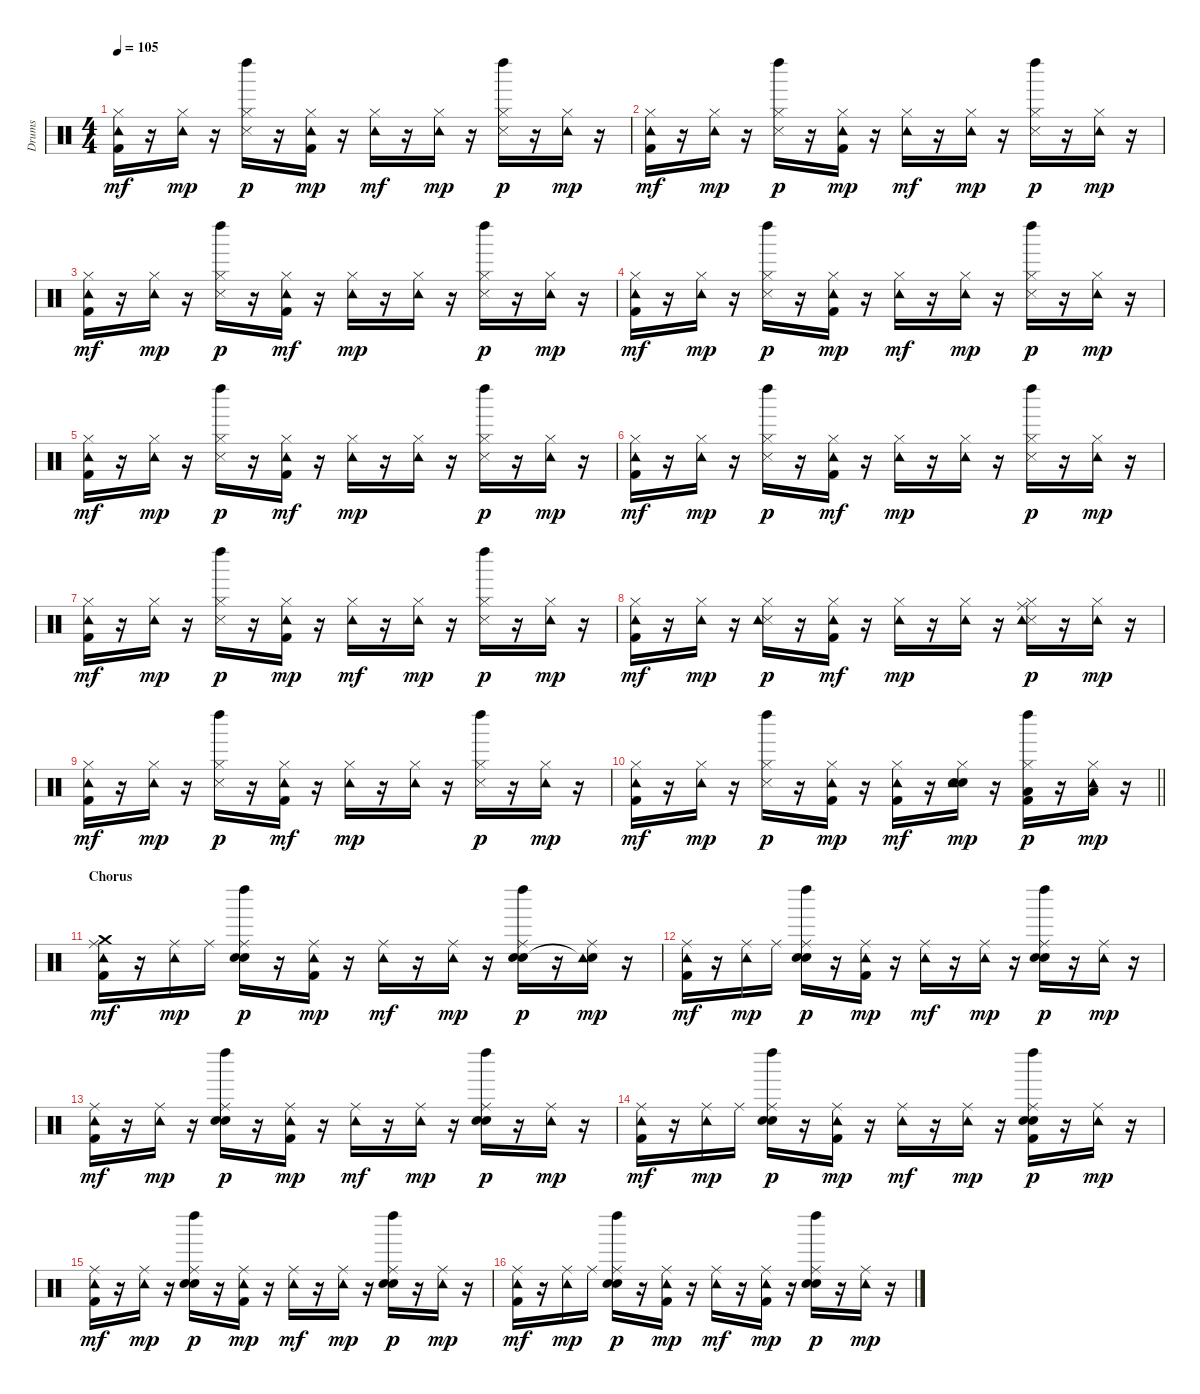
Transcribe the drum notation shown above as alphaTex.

\track ("Drums" "Drums") {instrument percussion}
\staff {score}
\articulation defaults
\ts (4 4)
\tempo 105
\clef neutral
\ks c
("Hi-Hat (closed)" "Tambourine (hit)" "Kick (hit) 2").16{dy mf} r.16 ("Hi-Hat (closed)" "Tambourine (hit)").16{dy mp} r.16 ("Hi-Hat (closed)" "Snare (side stick) 3" "Left Maraca (hit)").16{dy p} r.16 ("Hi-Hat (closed)" "Tambourine (hit)" "Kick (hit) 2").16{dy mp} r.16 ("Hi-Hat (closed)" "Tambourine (hit)").16{dy mf} r.16 ("Hi-Hat (closed)" "Tambourine (hit)").16{dy mp} r.16 ("Hi-Hat (closed)" "Snare (side stick) 3" "Left Maraca (hit)").16{dy p} r.16 ("Hi-Hat (closed)" "Tambourine (hit)").16{dy mp} r.16 |
("Hi-Hat (closed)" "Tambourine (hit)" "Kick (hit) 2").16{dy mf} r.16 ("Hi-Hat (closed)" "Tambourine (hit)").16{dy mp} r.16 ("Hi-Hat (closed)" "Snare (side stick) 3" "Left Maraca (hit)").16{dy p} r.16 ("Hi-Hat (closed)" "Tambourine (hit)" "Kick (hit) 2").16{dy mp} r.16 ("Hi-Hat (closed)" "Tambourine (hit)").16{dy mf} r.16 ("Hi-Hat (closed)" "Tambourine (hit)").16{dy mp} r.16 ("Hi-Hat (closed)" "Snare (side stick) 3" "Left Maraca (hit)").16{dy p} r.16 ("Hi-Hat (closed)" "Tambourine (hit)").16{dy mp} r.16 |
("Hi-Hat (closed)" "Tambourine (hit)" "Kick (hit) 2").16{dy mf} r.16 ("Hi-Hat (closed)" "Tambourine (hit)").16{dy mp} r.16 ("Hi-Hat (closed)" "Snare (side stick) 3" "Left Maraca (hit)").16{dy p} r.16 ("Hi-Hat (closed)" "Tambourine (hit)" "Kick (hit) 2").16{dy mf} r.16 ("Hi-Hat (closed)" "Tambourine (hit)").16{dy mp} r.16 ("Hi-Hat (closed)" "Tambourine (hit)").16 r.16 ("Hi-Hat (closed)" "Snare (side stick) 3" "Left Maraca (hit)").16{dy p} r.16 ("Hi-Hat (closed)" "Tambourine (hit)").16{dy mp} r.16 |
("Hi-Hat (closed)" "Tambourine (hit)" "Kick (hit) 2").16{dy mf} r.16 ("Hi-Hat (closed)" "Tambourine (hit)").16{dy mp} r.16 ("Hi-Hat (closed)" "Snare (side stick) 3" "Left Maraca (hit)").16{dy p} r.16 ("Hi-Hat (closed)" "Tambourine (hit)" "Kick (hit) 2").16{dy mp} r.16 ("Hi-Hat (closed)" "Tambourine (hit)").16{dy mf} r.16 ("Hi-Hat (closed)" "Tambourine (hit)").16{dy mp} r.16 ("Hi-Hat (closed)" "Snare (side stick) 3" "Left Maraca (hit)").16{dy p} r.16 ("Hi-Hat (closed)" "Tambourine (hit)").16{dy mp} r.16 |
("Hi-Hat (closed)" "Tambourine (hit)" "Kick (hit) 2").16{dy mf} r.16 ("Hi-Hat (closed)" "Tambourine (hit)").16{dy mp} r.16 ("Hi-Hat (closed)" "Snare (side stick) 3" "Left Maraca (hit)").16{dy p} r.16 ("Hi-Hat (closed)" "Tambourine (hit)" "Kick (hit) 2").16{dy mf} r.16 ("Hi-Hat (closed)" "Tambourine (hit)").16{dy mp} r.16 ("Hi-Hat (closed)" "Tambourine (hit)").16 r.16 ("Hi-Hat (closed)" "Snare (side stick) 3" "Left Maraca (hit)").16{dy p} r.16 ("Hi-Hat (closed)" "Tambourine (hit)").16{dy mp} r.16 |
("Hi-Hat (closed)" "Tambourine (hit)" "Kick (hit) 2").16{dy mf} r.16 ("Hi-Hat (closed)" "Tambourine (hit)").16{dy mp} r.16 ("Hi-Hat (closed)" "Snare (side stick) 3" "Left Maraca (hit)").16{dy p} r.16 ("Hi-Hat (closed)" "Tambourine (hit)" "Kick (hit) 2").16{dy mf} r.16 ("Hi-Hat (closed)" "Tambourine (hit)").16{dy mp} r.16 ("Hi-Hat (closed)" "Tambourine (hit)").16 r.16 ("Hi-Hat (closed)" "Snare (side stick) 3" "Left Maraca (hit)").16{dy p} r.16 ("Hi-Hat (closed)" "Tambourine (hit)").16{dy mp} r.16 |
("Hi-Hat (closed)" "Tambourine (hit)" "Kick (hit) 2").16{dy mf} r.16 ("Hi-Hat (closed)" "Tambourine (hit)").16{dy mp} r.16 ("Hi-Hat (closed)" "Snare (side stick) 3" "Left Maraca (hit)").16{dy p} r.16 ("Hi-Hat (closed)" "Tambourine (hit)" "Kick (hit) 2").16{dy mp} r.16 ("Hi-Hat (closed)" "Tambourine (hit)").16{dy mf} r.16 ("Hi-Hat (closed)" "Tambourine (hit)").16{dy mp} r.16 ("Hi-Hat (closed)" "Snare (side stick) 3" "Left Maraca (hit)").16{dy p} r.16 ("Hi-Hat (closed)" "Tambourine (hit)").16{dy mp} r.16 |
("Hi-Hat (closed)" "Tambourine (hit)" "Kick (hit) 2").16{dy mf} r.16 ("Hi-Hat (closed)" "Tambourine (hit)").16{dy mp} r.16 ("Hi-Hat (closed)" "Snare (side stick) 3" "Tambourine (hit)").16{dy p} r.16 ("Hi-Hat (closed)" "Tambourine (hit)" "Kick (hit) 2").16{dy mf} r.16 ("Hi-Hat (closed)" "Tambourine (hit)").16{dy mp} r.16 ("Hi-Hat (closed)" "Tambourine (hit)").16 r.16 ("Hi-Hat (closed)" "Snare (side stick) 3" "Ride (middle)" "Tambourine (hit)").16{dy p} r.16 ("Hi-Hat (closed)" "Tambourine (hit)").16{dy mp} r.16 |
("Hi-Hat (closed)" "Tambourine (hit)" "Kick (hit) 2").16{dy mf} r.16 ("Hi-Hat (closed)" "Tambourine (hit)").16{dy mp} r.16 ("Hi-Hat (closed)" "Snare (side stick) 3" "Left Maraca (hit)").16{dy p} r.16 ("Hi-Hat (closed)" "Tambourine (hit)" "Kick (hit) 2").16{dy mf} r.16 ("Hi-Hat (closed)" "Tambourine (hit)").16{dy mp} r.16 ("Hi-Hat (closed)" "Tambourine (hit)").16 r.16 ("Hi-Hat (closed)" "Snare (side stick) 3" "Left Maraca (hit)").16{dy p} r.16 ("Hi-Hat (closed)" "Tambourine (hit)").16{dy mp} r.16 |
\barLineRight lightlight
("Hi-Hat (closed)" "Tambourine (hit)" "Kick (hit) 2").16{dy mf} r.16 ("Hi-Hat (closed)" "Tambourine (hit)").16{dy mp} r.16 ("Hi-Hat (closed)" "Snare (side stick) 3" "Left Maraca (hit)").16{dy p} r.16 ("Hi-Hat (closed)" "Tambourine (hit)" "Kick (hit) 2").16{dy mp} r.16 ("Hi-Hat (closed)" "Tambourine (hit)" "Kick (hit) 2").16{dy mf} r.16 ("Hi-Hat (closed)" "Electric Snare (hit)" "Snare (hit) 2" "Tambourine (hit)").16{dy mp} r.16 ("Hi-Hat (closed)" "Low Tom (hit)" "Left Maraca (hit)" "Kick (hit) 2").16{dy p} r.16 ("Hi-Hat (closed)" "Low Tom (hit)" "Tambourine (hit)").16{dy mp} r.16 |
\section ("" "Chorus")
("Ride (middle)" "Crash medium (hit)" "Tambourine (hit)" "Kick (hit) 2").16{dy mf} r.16 ("Ride (middle)" "Tambourine (hit)").16{dy mp} "Ride (middle)".16 ("Ride (middle)" "Electric Snare (hit)" "Snare (hit) 2" "Left Maraca (hit)").16{dy p} r.16 ("Ride (middle)" "Tambourine (hit)" "Kick (hit) 2").16{dy mp} r.16 ("Ride (middle)" "Tambourine (hit)").16{dy mf} r.16 ("Ride (middle)" "Tambourine (hit)").16{dy mp} r.16 ("Ride (middle)" "Electric Snare (hit)" "Snare (hit) 2" "Left Maraca (hit)").16{dy p} r.16 ("Ride (middle)" "Snare (hit)"{t} "Tambourine (hit)").16{dy mp} r.16 |
("Ride (middle)" "Tambourine (hit)" "Kick (hit) 2").16{dy mf} r.16 ("Ride (middle)" "Tambourine (hit)").16{dy mp} "Ride (middle)".16 ("Ride (middle)" "Electric Snare (hit)" "Snare (hit) 2" "Left Maraca (hit)").16{dy p} r.16 ("Ride (middle)" "Tambourine (hit)" "Kick (hit) 2").16{dy mp} r.16 ("Ride (middle)" "Tambourine (hit)").16{dy mf} r.16 ("Ride (middle)" "Tambourine (hit)").16{dy mp} r.16 ("Ride (middle)" "Electric Snare (hit)" "Snare (hit) 2" "Left Maraca (hit)").16{dy p} r.16 ("Ride (middle)" "Tambourine (hit)").16{dy mp} r.16 |
("Ride (middle)" "Tambourine (hit)" "Kick (hit) 2").16{dy mf} r.16 ("Ride (middle)" "Tambourine (hit)").16{dy mp} r.16 ("Ride (middle)" "Electric Snare (hit)" "Snare (hit) 2" "Left Maraca (hit)").16{dy p} r.16 ("Ride (middle)" "Tambourine (hit)" "Kick (hit) 2").16{dy mp} r.16 ("Ride (middle)" "Tambourine (hit)").16{dy mf} r.16 ("Ride (middle)" "Tambourine (hit)").16{dy mp} r.16 ("Ride (middle)" "Electric Snare (hit)" "Snare (hit) 2" "Left Maraca (hit)").16{dy p} r.16 ("Ride (middle)" "Tambourine (hit)").16{dy mp} r.16 |
("Ride (middle)" "Tambourine (hit)" "Kick (hit) 2").16{dy mf} r.16 ("Ride (middle)" "Tambourine (hit)").16{dy mp} "Ride (middle)".16 ("Ride (middle)" "Electric Snare (hit)" "Snare (hit) 2" "Left Maraca (hit)").16{dy p} r.16 ("Ride (middle)" "Tambourine (hit)" "Kick (hit) 2").16{dy mp} r.16 ("Ride (middle)" "Tambourine (hit)").16{dy mf} r.16 ("Ride (middle)" "Tambourine (hit)").16{dy mp} r.16 ("Ride (middle)" "Electric Snare (hit)" "Snare (hit) 2" "Left Maraca (hit)" "Kick (hit) 2").16{dy p} r.16 ("Ride (middle)" "Tambourine (hit)").16{dy mp} r.16 |
("Ride (middle)" "Tambourine (hit)" "Kick (hit) 2").16{dy mf} r.16 ("Ride (middle)" "Tambourine (hit)").16{dy mp} r.16 ("Ride (middle)" "Electric Snare (hit)" "Snare (hit) 2" "Left Maraca (hit)").16{dy p} r.16 ("Ride (middle)" "Tambourine (hit)" "Kick (hit) 2").16{dy mp} r.16 ("Ride (middle)" "Tambourine (hit)").16{dy mf} r.16 ("Ride (middle)" "Tambourine (hit)").16{dy mp} r.16 ("Ride (middle)" "Electric Snare (hit)" "Snare (hit) 2" "Left Maraca (hit)").16{dy p} r.16 ("Ride (middle)" "Tambourine (hit)").16{dy mp} r.16 |
("Ride (middle)" "Tambourine (hit)" "Kick (hit) 2").16{dy mf} r.16 ("Ride (middle)" "Tambourine (hit)").16{dy mp} "Ride (middle)".16 ("Ride (middle)" "Electric Snare (hit)" "Snare (hit) 2" "Left Maraca (hit)").16{dy p} r.16 ("Ride (middle)" "Tambourine (hit)" "Kick (hit) 2").16{dy mp} r.16 ("Ride (middle)" "Tambourine (hit)").16{dy mf} r.16 ("Ride (middle)" "Tambourine (hit)" "Kick (hit) 2").16{dy mp} r.16 ("Ride (middle)" "Electric Snare (hit)" "Snare (hit) 2" "Left Maraca (hit)").16{dy p} r.16 ("Ride (middle)" "Tambourine (hit)").16{dy mp} r.16
